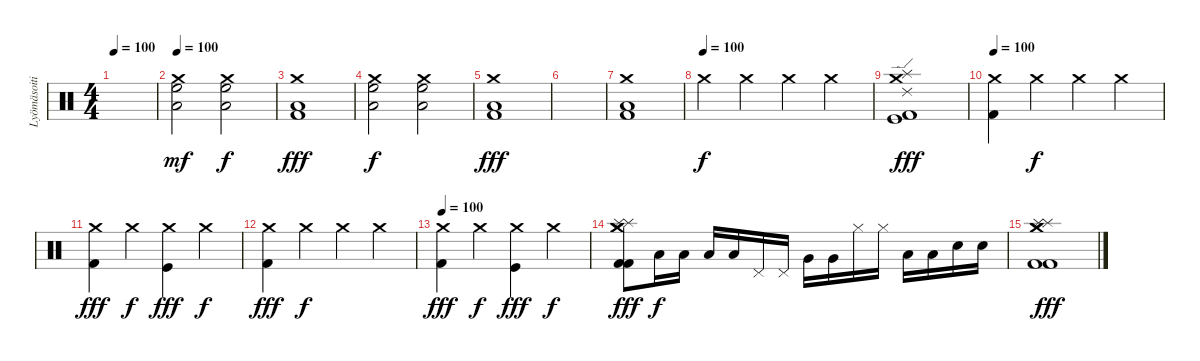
\track ("Lyömäsoitin" "Lyömäsoiti") {instrument percussion}
\staff {score}
\articulation defaults
\ts (4 4)
\tempo 100
\clef neutral
\ks c
|
\tempo 100
("Crash medium (hit)" "High Floor Tom (hit)" "Low Tom (hit)").2{dy mf} ("Crash medium (hit)" "High Floor Tom (hit)" "Low Tom (hit)").2{dy f} |
("Crash medium (hit)" "Kick (hit) 2" "Low Tom (hit)").1{dy fff} |
("Crash medium (hit)" "High Floor Tom (hit)" "Low Tom (hit)").2{dy f} ("Crash medium (hit)" "High Floor Tom (hit)" "Low Tom (hit)").2 |
("Crash medium (hit)" "Kick (hit) 2" "Low Tom (hit)").1{dy fff} |
|
("Crash medium (hit)" "Kick (hit) 2" "Low Tom (hit)").1 |
\tempo (100)
"Crash medium (hit)".4{dy f} "Crash medium (hit)".4 "Crash medium (hit)".4 "Crash medium (hit)".4 |
("Splash (hit)" "Crash medium (hit)" "Ride (edge) 2" "Kick (hit) 2" "Kick (hit)").1{dy fff} |
\tempo 100
("Crash medium (hit)" "Kick (hit) 2").4 "Crash medium (hit)".4{dy f} "Crash medium (hit)".4 "Crash medium (hit)".4 |
("Crash medium (hit)" "Kick (hit) 2").4{dy fff} "Crash medium (hit)".4{dy f} ("Crash medium (hit)" "Kick (hit)").4{dy fff} "Crash medium (hit)".4{dy f} |
("Crash medium (hit)" "Kick (hit) 2").4{dy fff} "Crash medium (hit)".4{dy f} "Crash medium (hit)".4 "Crash medium (hit)".4 |
\tempo 100
("Crash medium (hit)" "Kick (hit) 2").4{dy fff} "Crash medium (hit)".4{dy f} ("Crash medium (hit)" "Kick (hit)").4{dy fff} "Crash medium (hit)".4{dy f} |
("Crash medium (hit)" "Crash medium (hit)" "Kick (hit) 2" "Kick (hit) 2" "Splash (hit)" "Splash (hit)").8{dy fff} "Low Tom (hit)".16{dy f} "Low Tom (hit)".16 "Low Tom (hit)".16 "Low Tom (hit)".16 "Pedal Hi-Hat (hit)".16 "Pedal Hi-Hat (hit)".16 "Very Low Tom (hit)".16 "Very Low Tom (hit)".16 "Hi-Hat (closed)".16 "Hi-Hat (closed)".16 "Low Floor Tom (hit)".16 "Low Floor Tom (hit)".16 "Electric Snare (hit)".16 "Electric Snare (hit)".16 |
("Crash medium (hit)" "Crash medium (hit)" "Kick (hit) 2" "Kick (hit) 2" "Splash (hit)" "Splash (hit)").1{dy fff}
